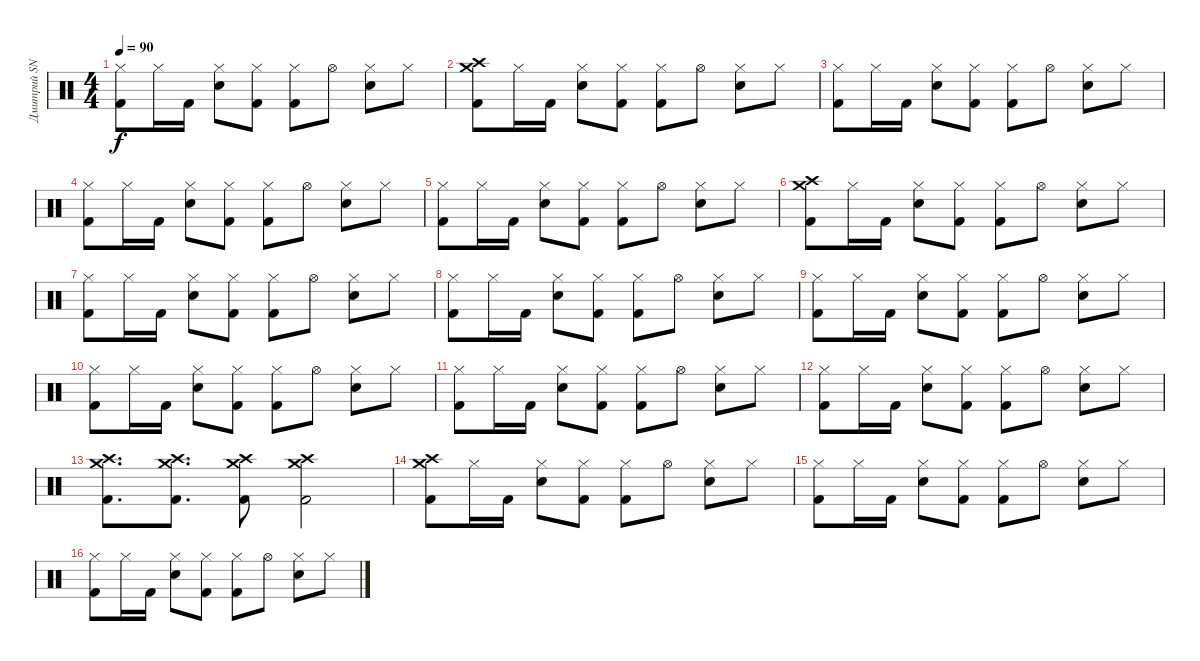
\track ("Дмитрий SNAKE Хакимов" "Дмитрий SN") {instrument percussion}
\staff {score}
\articulation defaults
\ts (4 4)
\tempo 90
\clef neutral
\ks c
("Hi-Hat (closed)" "Kick (hit) 2").8{dy f} "Hi-Hat (closed)".16 "Kick (hit) 2".16 ("Hi-Hat (closed)" "Snare (hit) 2").8 ("Hi-Hat (closed)" "Kick (hit) 2").8 ("Hi-Hat (closed)" "Kick (hit) 2").8 "Hi-Hat (open)".8 ("Hi-Hat (closed)" "Snare (hit) 2").8 "Hi-Hat (closed)".8 |
("Crash high (hit)" "Crash medium (hit)" "Kick (hit) 2").8 "Hi-Hat (closed)".16 "Kick (hit) 2".16 ("Hi-Hat (closed)" "Snare (hit) 2").8 ("Hi-Hat (closed)" "Kick (hit) 2").8 ("Hi-Hat (closed)" "Kick (hit) 2").8 "Hi-Hat (open)".8 ("Hi-Hat (closed)" "Snare (hit) 2").8 "Hi-Hat (closed)".8 |
("Hi-Hat (closed)" "Kick (hit) 2").8 "Hi-Hat (closed)".16 "Kick (hit) 2".16 ("Hi-Hat (closed)" "Snare (hit) 2").8 ("Hi-Hat (closed)" "Kick (hit) 2").8 ("Hi-Hat (closed)" "Kick (hit) 2").8 "Hi-Hat (open)".8 ("Hi-Hat (closed)" "Snare (hit) 2").8 "Hi-Hat (closed)".8 |
("Hi-Hat (closed)" "Kick (hit) 2").8 "Hi-Hat (closed)".16 "Kick (hit) 2".16 ("Hi-Hat (closed)" "Snare (hit) 2").8 ("Hi-Hat (closed)" "Kick (hit) 2").8 ("Hi-Hat (closed)" "Kick (hit) 2").8 "Hi-Hat (open)".8 ("Hi-Hat (closed)" "Snare (hit) 2").8 "Hi-Hat (closed)".8 |
("Hi-Hat (closed)" "Kick (hit) 2").8 "Hi-Hat (closed)".16 "Kick (hit) 2".16 ("Hi-Hat (closed)" "Snare (hit) 2").8 ("Hi-Hat (closed)" "Kick (hit) 2").8 ("Hi-Hat (closed)" "Kick (hit) 2").8 "Hi-Hat (open)".8 ("Hi-Hat (closed)" "Snare (hit) 2").8 "Hi-Hat (closed)".8 |
("Crash high (hit)" "Crash medium (hit)" "Kick (hit) 2").8 "Hi-Hat (closed)".16 "Kick (hit) 2".16 ("Hi-Hat (closed)" "Snare (hit) 2").8 ("Hi-Hat (closed)" "Kick (hit) 2").8 ("Hi-Hat (closed)" "Kick (hit) 2").8 "Hi-Hat (open)".8 ("Hi-Hat (closed)" "Snare (hit) 2").8 "Hi-Hat (closed)".8 |
("Hi-Hat (closed)" "Kick (hit) 2").8 "Hi-Hat (closed)".16 "Kick (hit) 2".16 ("Hi-Hat (closed)" "Snare (hit) 2").8 ("Hi-Hat (closed)" "Kick (hit) 2").8 ("Hi-Hat (closed)" "Kick (hit) 2").8 "Hi-Hat (open)".8 ("Hi-Hat (closed)" "Snare (hit) 2").8 "Hi-Hat (closed)".8 |
("Hi-Hat (closed)" "Kick (hit) 2").8 "Hi-Hat (closed)".16 "Kick (hit) 2".16 ("Hi-Hat (closed)" "Snare (hit) 2").8 ("Hi-Hat (closed)" "Kick (hit) 2").8 ("Hi-Hat (closed)" "Kick (hit) 2").8 "Hi-Hat (open)".8 ("Hi-Hat (closed)" "Snare (hit) 2").8 "Hi-Hat (closed)".8 |
("Hi-Hat (closed)" "Kick (hit) 2").8 "Hi-Hat (closed)".16 "Kick (hit) 2".16 ("Hi-Hat (closed)" "Snare (hit) 2").8 ("Hi-Hat (closed)" "Kick (hit) 2").8 ("Hi-Hat (closed)" "Kick (hit) 2").8 "Hi-Hat (open)".8 ("Hi-Hat (closed)" "Snare (hit) 2").8 "Hi-Hat (closed)".8 |
("Hi-Hat (closed)" "Kick (hit) 2").8 "Hi-Hat (closed)".16 "Kick (hit) 2".16 ("Hi-Hat (closed)" "Snare (hit) 2").8 ("Hi-Hat (closed)" "Kick (hit) 2").8 ("Hi-Hat (closed)" "Kick (hit) 2").8 "Hi-Hat (open)".8 ("Hi-Hat (closed)" "Snare (hit) 2").8 "Hi-Hat (closed)".8 |
("Hi-Hat (closed)" "Kick (hit) 2").8 "Hi-Hat (closed)".16 "Kick (hit) 2".16 ("Hi-Hat (closed)" "Snare (hit) 2").8 ("Hi-Hat (closed)" "Kick (hit) 2").8 ("Hi-Hat (closed)" "Kick (hit) 2").8 "Hi-Hat (open)".8 ("Hi-Hat (closed)" "Snare (hit) 2").8 "Hi-Hat (closed)".8 |
("Hi-Hat (closed)" "Kick (hit) 2").8 "Hi-Hat (closed)".16 "Kick (hit) 2".16 ("Hi-Hat (closed)" "Snare (hit) 2").8 ("Hi-Hat (closed)" "Kick (hit) 2").8 ("Hi-Hat (closed)" "Kick (hit) 2").8 "Hi-Hat (open)".8 ("Hi-Hat (closed)" "Snare (hit) 2").8 "Hi-Hat (closed)".8 |
("Crash high (hit)" "Crash medium (hit)" "Kick (hit) 2").8{d} ("Crash high (hit)" "Crash medium (hit)" "Kick (hit) 2").8{d} ("Crash high (hit)" "Crash medium (hit)" "Kick (hit) 2").8 ("Crash high (hit)" "Crash medium (hit)" "Kick (hit) 2").2 |
("Crash high (hit)" "Crash medium (hit)" "Kick (hit) 2").8 "Hi-Hat (closed)".16 "Kick (hit) 2".16 ("Hi-Hat (closed)" "Snare (hit) 2").8 ("Hi-Hat (closed)" "Kick (hit) 2").8 ("Hi-Hat (closed)" "Kick (hit) 2").8 "Hi-Hat (open)".8 ("Hi-Hat (closed)" "Snare (hit) 2").8 "Hi-Hat (closed)".8 |
("Hi-Hat (closed)" "Kick (hit) 2").8 "Hi-Hat (closed)".16 "Kick (hit) 2".16 ("Hi-Hat (closed)" "Snare (hit) 2").8 ("Hi-Hat (closed)" "Kick (hit) 2").8 ("Hi-Hat (closed)" "Kick (hit) 2").8 "Hi-Hat (open)".8 ("Hi-Hat (closed)" "Snare (hit) 2").8 "Hi-Hat (closed)".8 |
("Hi-Hat (closed)" "Kick (hit) 2").8 "Hi-Hat (closed)".16 "Kick (hit) 2".16 ("Hi-Hat (closed)" "Snare (hit) 2").8 ("Hi-Hat (closed)" "Kick (hit) 2").8 ("Hi-Hat (closed)" "Kick (hit) 2").8 "Hi-Hat (open)".8 ("Hi-Hat (closed)" "Snare (hit) 2").8 "Hi-Hat (closed)".8
